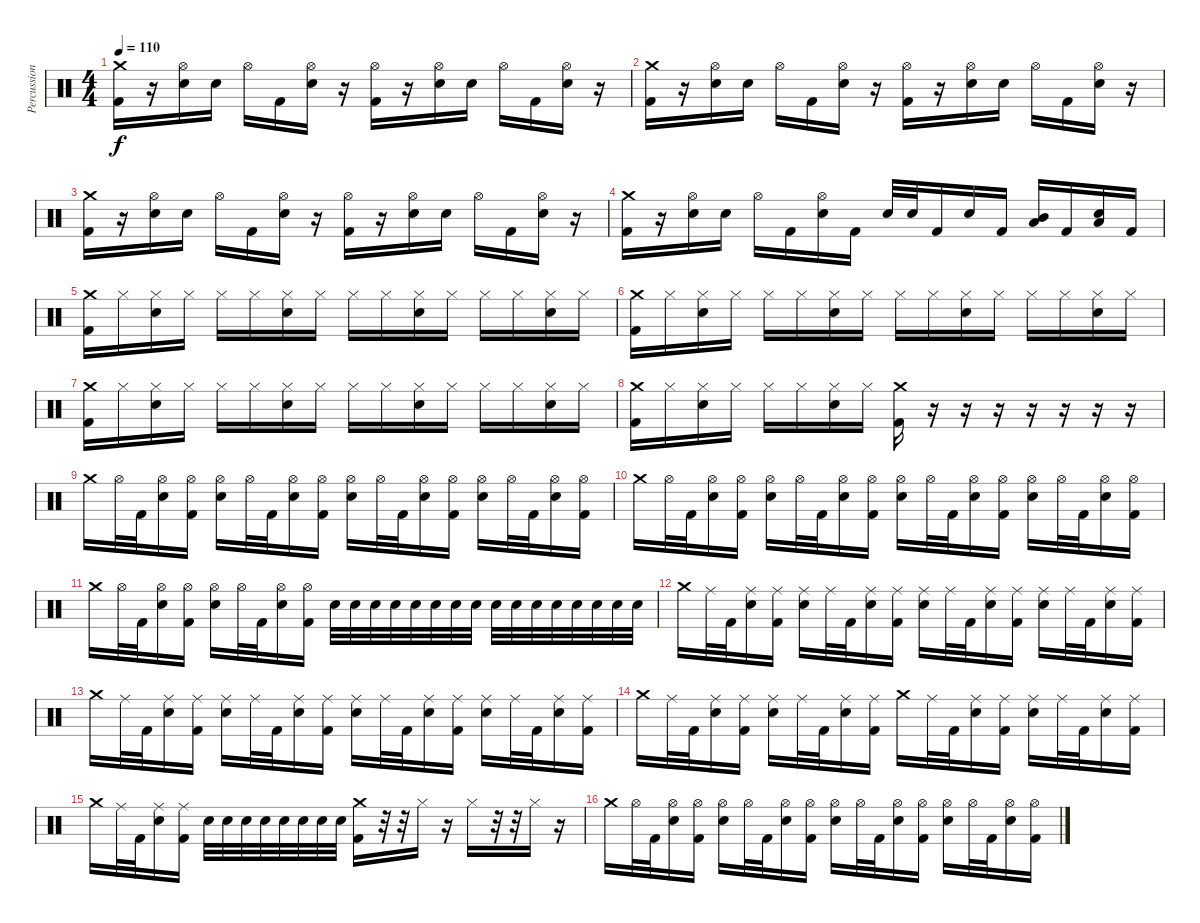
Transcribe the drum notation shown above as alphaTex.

\track ("Percussion" "Percussion") {instrument percussion}
\staff {score}
\articulation defaults
\ts (4 4)
\tempo 110
\clef neutral
\ks c
("Crash medium (hit)" "Kick (hit) 2").16{dy f} r.16 ("Hi-Hat (open)" "Electric Snare (hit)").16 "Electric Snare (hit)".16 "Hi-Hat (open)".16 "Kick (hit) 2".16 ("Hi-Hat (open)" "Electric Snare (hit)").16 r.16 ("Hi-Hat (open)" "Kick (hit) 2").16 r.16 ("Hi-Hat (open)" "Electric Snare (hit)").16 "Electric Snare (hit)".16 "Hi-Hat (open)".16 "Kick (hit) 2".16 ("Hi-Hat (open)" "Electric Snare (hit)").16 r.16 |
("Crash medium (hit)" "Kick (hit) 2").16 r.16 ("Hi-Hat (open)" "Electric Snare (hit)").16 "Electric Snare (hit)".16 "Hi-Hat (open)".16 "Kick (hit) 2".16 ("Hi-Hat (open)" "Electric Snare (hit)").16 r.16 ("Hi-Hat (open)" "Kick (hit) 2").16 r.16 ("Hi-Hat (open)" "Electric Snare (hit)").16 "Electric Snare (hit)".16 "Hi-Hat (open)".16 "Kick (hit) 2".16 ("Hi-Hat (open)" "Electric Snare (hit)").16 r.16 |
("Crash medium (hit)" "Kick (hit) 2").16 r.16 ("Hi-Hat (open)" "Electric Snare (hit)").16 "Electric Snare (hit)".16 "Hi-Hat (open)".16 "Kick (hit) 2".16 ("Hi-Hat (open)" "Electric Snare (hit)").16 r.16 ("Hi-Hat (open)" "Kick (hit) 2").16 r.16 ("Hi-Hat (open)" "Electric Snare (hit)").16 "Electric Snare (hit)".16 "Hi-Hat (open)".16 "Kick (hit) 2".16 ("Hi-Hat (open)" "Electric Snare (hit)").16 r.16 |
("Crash medium (hit)" "Kick (hit) 2").16 r.16 ("Hi-Hat (open)" "Electric Snare (hit)").16 "Electric Snare (hit)".16 "Hi-Hat (open)".16 "Kick (hit) 2".16 ("Hi-Hat (open)" "Electric Snare (hit)").16 "Kick (hit) 2".16 "Electric Snare (hit)".32 "Electric Snare (hit)".32 "Kick (hit) 2".16 "Electric Snare (hit)".16 "Kick (hit) 2".16 ("Mid Tom (hit)" "Low Floor Tom (hit)").16 "Kick (hit) 2".16 ("Electric Snare (hit)" "Low Floor Tom (hit)").16 "Kick (hit) 2".16 |
("Crash medium (hit)" "Kick (hit) 2").16 "Hi-Hat (closed)".16 ("Hi-Hat (closed)" "Electric Snare (hit)").16 "Hi-Hat (closed)".16 "Hi-Hat (closed)".16 "Hi-Hat (closed)".16 ("Hi-Hat (closed)" "Electric Snare (hit)").16 "Hi-Hat (closed)".16 "Hi-Hat (closed)".16 "Hi-Hat (closed)".16 ("Hi-Hat (closed)" "Electric Snare (hit)").16 "Hi-Hat (closed)".16 "Hi-Hat (closed)".16 "Hi-Hat (closed)".16 ("Hi-Hat (closed)" "Electric Snare (hit)").16 "Hi-Hat (closed)".16 |
("Crash medium (hit)" "Kick (hit) 2").16 "Hi-Hat (closed)".16 ("Hi-Hat (closed)" "Electric Snare (hit)").16 "Hi-Hat (closed)".16 "Hi-Hat (closed)".16 "Hi-Hat (closed)".16 ("Hi-Hat (closed)" "Electric Snare (hit)").16 "Hi-Hat (closed)".16 "Hi-Hat (closed)".16 "Hi-Hat (closed)".16 ("Hi-Hat (closed)" "Electric Snare (hit)").16 "Hi-Hat (closed)".16 "Hi-Hat (closed)".16 "Hi-Hat (closed)".16 ("Hi-Hat (closed)" "Electric Snare (hit)").16 "Hi-Hat (closed)".16 |
("Crash medium (hit)" "Kick (hit) 2").16 "Hi-Hat (closed)".16 ("Hi-Hat (closed)" "Electric Snare (hit)").16 "Hi-Hat (closed)".16 "Hi-Hat (closed)".16 "Hi-Hat (closed)".16 ("Hi-Hat (closed)" "Electric Snare (hit)").16 "Hi-Hat (closed)".16 "Hi-Hat (closed)".16 "Hi-Hat (closed)".16 ("Hi-Hat (closed)" "Electric Snare (hit)").16 "Hi-Hat (closed)".16 "Hi-Hat (closed)".16 "Hi-Hat (closed)".16 ("Hi-Hat (closed)" "Electric Snare (hit)").16 "Hi-Hat (closed)".16 |
("Crash medium (hit)" "Kick (hit) 2").16 "Hi-Hat (closed)".16 ("Hi-Hat (closed)" "Electric Snare (hit)").16 "Hi-Hat (closed)".16 "Hi-Hat (closed)".16 "Hi-Hat (closed)".16 ("Hi-Hat (closed)" "Electric Snare (hit)").16 "Hi-Hat (closed)".16 ("Crash medium (hit)" "Kick (hit) 2").16 r.16 r.16 r.16 r.16 r.16 r.16 r.16 |
"Crash medium (hit)".16 "Hi-Hat (open)".32 "Kick (hit) 2".32 ("Hi-Hat (open)" "Electric Snare (hit)").16 ("Hi-Hat (open)" "Kick (hit) 2").16 ("Hi-Hat (open)" "Electric Snare (hit)").16 "Hi-Hat (open)".32 "Kick (hit) 2".32 ("Hi-Hat (open)" "Electric Snare (hit)").16 ("Hi-Hat (open)" "Kick (hit) 2").16 ("Hi-Hat (open)" "Electric Snare (hit)").16 "Hi-Hat (open)".32 "Kick (hit) 2".32 ("Hi-Hat (open)" "Electric Snare (hit)").16 ("Hi-Hat (open)" "Kick (hit) 2").16 ("Hi-Hat (open)" "Electric Snare (hit)").16 "Hi-Hat (open)".32 "Kick (hit) 2".32 ("Hi-Hat (open)" "Electric Snare (hit)").16 ("Hi-Hat (open)" "Kick (hit) 2").16 |
"Crash medium (hit)".16 "Hi-Hat (open)".32 "Kick (hit) 2".32 ("Hi-Hat (open)" "Electric Snare (hit)").16 ("Hi-Hat (open)" "Kick (hit) 2").16 ("Hi-Hat (open)" "Electric Snare (hit)").16 "Hi-Hat (open)".32 "Kick (hit) 2".32 ("Hi-Hat (open)" "Electric Snare (hit)").16 ("Hi-Hat (open)" "Kick (hit) 2").16 ("Hi-Hat (open)" "Electric Snare (hit)").16 "Hi-Hat (open)".32 "Kick (hit) 2".32 ("Hi-Hat (open)" "Electric Snare (hit)").16 ("Hi-Hat (open)" "Kick (hit) 2").16 ("Hi-Hat (open)" "Electric Snare (hit)").16 "Hi-Hat (open)".32 "Kick (hit) 2".32 ("Hi-Hat (open)" "Electric Snare (hit)").16 ("Hi-Hat (open)" "Kick (hit) 2").16 |
"Crash medium (hit)".16 "Hi-Hat (open)".32 "Kick (hit) 2".32 ("Hi-Hat (open)" "Electric Snare (hit)").16 ("Hi-Hat (open)" "Kick (hit) 2").16 ("Hi-Hat (open)" "Electric Snare (hit)").16 "Hi-Hat (open)".32 "Kick (hit) 2".32 ("Hi-Hat (open)" "Electric Snare (hit)").16 ("Hi-Hat (open)" "Kick (hit) 2").16 "Electric Snare (hit)".32 "Electric Snare (hit)".32 "Electric Snare (hit)".32 "Electric Snare (hit)".32 "Electric Snare (hit)".32 "Electric Snare (hit)".32 "Electric Snare (hit)".32 "Electric Snare (hit)".32 "Electric Snare (hit)".32 "Electric Snare (hit)".32 "Electric Snare (hit)".32 "Electric Snare (hit)".32 "Electric Snare (hit)".32 "Electric Snare (hit)".32 "Electric Snare (hit)".32 "Electric Snare (hit)".32 |
"Crash medium (hit)".16 "Ride (middle)".32 "Kick (hit) 2".32 ("Ride (middle)" "Electric Snare (hit)").16 ("Ride (middle)" "Kick (hit) 2").16 ("Ride (middle)" "Electric Snare (hit)").16 "Ride (middle)".32 "Kick (hit) 2".32 ("Ride (middle)" "Electric Snare (hit)").16 ("Ride (middle)" "Kick (hit) 2").16 ("Ride (middle)" "Electric Snare (hit)").16 "Ride (middle)".32 "Kick (hit) 2".32 ("Ride (middle)" "Electric Snare (hit)").16 ("Ride (middle)" "Kick (hit) 2").16 ("Ride (middle)" "Electric Snare (hit)").16 "Ride (middle)".32 "Kick (hit) 2".32 ("Ride (middle)" "Electric Snare (hit)").16 ("Ride (middle)" "Kick (hit) 2").16 |
"Crash medium (hit)".16 "Ride (middle)".32 "Kick (hit) 2".32 ("Ride (middle)" "Electric Snare (hit)").16 ("Ride (middle)" "Kick (hit) 2").16 ("Ride (middle)" "Electric Snare (hit)").16 "Ride (middle)".32 "Kick (hit) 2".32 ("Ride (middle)" "Electric Snare (hit)").16 ("Ride (middle)" "Kick (hit) 2").16 ("Ride (middle)" "Electric Snare (hit)").16 "Ride (middle)".32 "Kick (hit) 2".32 ("Ride (middle)" "Electric Snare (hit)").16 ("Ride (middle)" "Kick (hit) 2").16 ("Ride (middle)" "Electric Snare (hit)").16 "Ride (middle)".32 "Kick (hit) 2".32 ("Ride (middle)" "Electric Snare (hit)").16 ("Ride (middle)" "Kick (hit) 2").16 |
"Crash medium (hit)".16 "Ride (middle)".32 "Kick (hit) 2".32 ("Ride (middle)" "Electric Snare (hit)").16 ("Ride (middle)" "Kick (hit) 2").16 ("Ride (middle)" "Electric Snare (hit)").16 "Ride (middle)".32 "Kick (hit) 2".32 ("Ride (middle)" "Electric Snare (hit)").16 ("Ride (middle)" "Kick (hit) 2").16 "Crash medium (hit)".16 "Ride (middle)".32 "Kick (hit) 2".32 ("Ride (middle)" "Electric Snare (hit)").16 ("Ride (middle)" "Kick (hit) 2").16 ("Ride (middle)" "Electric Snare (hit)").16 "Ride (middle)".32 "Kick (hit) 2".32 ("Ride (middle)" "Electric Snare (hit)").16 ("Ride (middle)" "Kick (hit) 2").16 |
"Crash medium (hit)".16 "Ride (middle)".32 "Kick (hit) 2".32 ("Ride (middle)" "Electric Snare (hit)").16 ("Ride (middle)" "Kick (hit) 2").16 "Electric Snare (hit)".32 "Electric Snare (hit)".32 "Electric Snare (hit)".32 "Electric Snare (hit)".32 "Electric Snare (hit)".32 "Electric Snare (hit)".32 "Electric Snare (hit)".32 "Electric Snare (hit)".32 ("Crash medium (hit)" "Kick (hit) 2").16 r.32 r.32 "Hi-Hat (closed)".16 r.16 "Hi-Hat (closed)".16 r.32 r.32 "Hi-Hat (closed)".16 r.16 |
"Crash medium (hit)".16 "Hi-Hat (open)".32 "Kick (hit) 2".32 ("Hi-Hat (open)" "Electric Snare (hit)").16 ("Hi-Hat (open)" "Kick (hit) 2").16 ("Hi-Hat (open)" "Electric Snare (hit)").16 "Hi-Hat (open)".32 "Kick (hit) 2".32 ("Hi-Hat (open)" "Electric Snare (hit)").16 ("Hi-Hat (open)" "Kick (hit) 2").16 ("Hi-Hat (open)" "Electric Snare (hit)").16 "Hi-Hat (open)".32 "Kick (hit) 2".32 ("Hi-Hat (open)" "Electric Snare (hit)").16 ("Hi-Hat (open)" "Kick (hit) 2").16 ("Hi-Hat (open)" "Electric Snare (hit)").16 "Hi-Hat (open)".32 "Kick (hit) 2".32 ("Hi-Hat (open)" "Electric Snare (hit)").16 ("Hi-Hat (open)" "Kick (hit) 2").16
